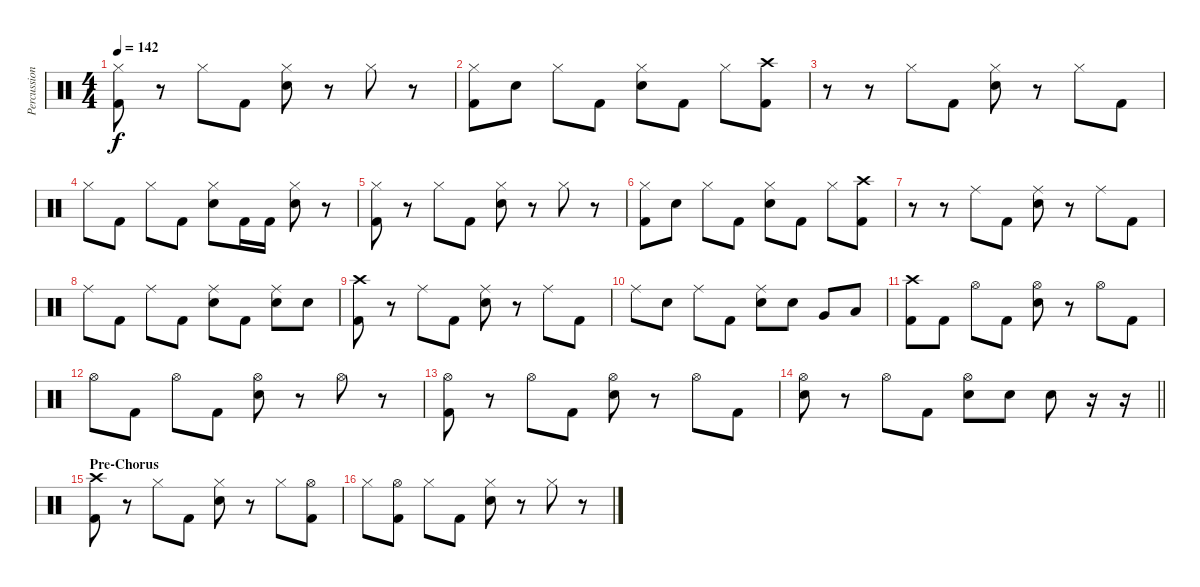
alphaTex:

\track ("Percussion" "Percussion") {instrument percussion}
\staff {score}
\articulation defaults
\ts (4 4)
\tempo 142
\clef neutral
\ks c
("Hi-Hat (closed)" "Kick (hit) 2").8{dy f} r.8 "Hi-Hat (closed)".8 "Kick (hit) 2".8 ("Hi-Hat (closed)" "Snare (hit) 2").8 r.8 "Hi-Hat (closed)".8 r.8 |
("Hi-Hat (closed)" "Kick (hit) 2").8 "Snare (hit) 2".8 "Hi-Hat (closed)".8 "Kick (hit) 2".8 ("Hi-Hat (closed)" "Snare (hit) 2").8 "Kick (hit) 2".8 "Hi-Hat (closed)".8 ("Crash high (hit)" "Kick (hit) 2").8 |
r.8 r.8 "Hi-Hat (closed)".8 "Kick (hit) 2".8 ("Hi-Hat (closed)" "Snare (hit) 2").8 r.8 "Hi-Hat (closed)".8 "Kick (hit) 2".8 |
"Hi-Hat (closed)".8 "Kick (hit) 2".8 "Hi-Hat (closed)".8 "Kick (hit) 2".8 ("Hi-Hat (closed)" "Snare (hit) 2").8 "Kick (hit) 2".16 "Kick (hit) 2".16 ("Hi-Hat (closed)" "Snare (hit) 2").8 r.8 |
("Hi-Hat (closed)" "Kick (hit) 2").8 r.8 "Hi-Hat (closed)".8 "Kick (hit) 2".8 ("Hi-Hat (closed)" "Snare (hit) 2").8 r.8 "Hi-Hat (closed)".8 r.8 |
("Hi-Hat (closed)" "Kick (hit) 2").8 "Snare (hit) 2".8 "Hi-Hat (closed)".8 "Kick (hit) 2".8 ("Hi-Hat (closed)" "Snare (hit) 2").8 "Kick (hit) 2".8 "Hi-Hat (closed)".8 ("Crash high (hit)" "Kick (hit) 2").8 |
r.8 r.8 "Ride (middle)".8 "Kick (hit) 2".8 ("Ride (middle)" "Snare (hit) 2").8 r.8 "Ride (middle)".8 "Kick (hit) 2".8 |
"Ride (middle)".8 "Kick (hit) 2".8 "Ride (middle)".8 "Kick (hit) 2".8 ("Ride (middle)" "Snare (hit) 2").8 "Kick (hit) 2".8 ("Ride (middle)" "Snare (hit) 2").8 "Snare (hit) 2".8 |
("Crash high (hit)" "Kick (hit) 2").8 r.8 "Ride (middle)".8 "Kick (hit) 2".8 ("Ride (middle)" "Snare (hit) 2").8 r.8 "Ride (middle)".8 "Kick (hit) 2".8 |
"Ride (middle)".8 "Snare (hit) 2".8 "Ride (middle)".8 "Kick (hit) 2".8 ("Ride (middle)" "Snare (hit) 2").8 "Snare (hit) 2".8 "Very Low Tom (hit)".8 "Low Floor Tom (hit)".8 |
("Crash high (hit)" "Kick (hit) 2").8 "Kick (hit) 2".8 "Hi-Hat (open)".8 "Kick (hit) 2".8 ("Hi-Hat (open)" "Snare (hit) 2").8 r.8 "Hi-Hat (open)".8 "Kick (hit) 2".8 |
"Hi-Hat (open)".8 "Kick (hit) 2".8 "Hi-Hat (open)".8 "Kick (hit) 2".8 ("Hi-Hat (open)" "Snare (hit) 2").8 r.8 "Hi-Hat (open)".8 r.8 |
("Hi-Hat (open)" "Kick (hit) 2").8 r.8 "Hi-Hat (open)".8 "Kick (hit) 2".8 ("Hi-Hat (open)" "Snare (hit) 2").8 r.8 "Hi-Hat (open)".8 "Kick (hit) 2".8 |
\barLineRight lightlight
("Hi-Hat (open)" "Snare (hit) 2").8 r.8 "Hi-Hat (open)".8 "Kick (hit) 2".8 ("Hi-Hat (open)" "Snare (hit) 2").8 "Snare (hit) 2".8 "Snare (hit) 2".8 r.16 r.16 |
\section ("" "Pre-Chorus")
("Crash high (hit)" "Kick (hit) 2").8 r.8 "Hi-Hat (closed)".8 "Kick (hit) 2".8 ("Hi-Hat (closed)" "Snare (hit) 2").8 r.8 "Hi-Hat (closed)".8 ("Hi-Hat (open)" "Kick (hit) 2").8 |
"Hi-Hat (closed)".8 ("Hi-Hat (open)" "Kick (hit) 2").8 "Hi-Hat (closed)".8 "Kick (hit) 2".8 ("Hi-Hat (closed)" "Snare (hit) 2").8 r.8 "Hi-Hat (closed)".8 r.8
